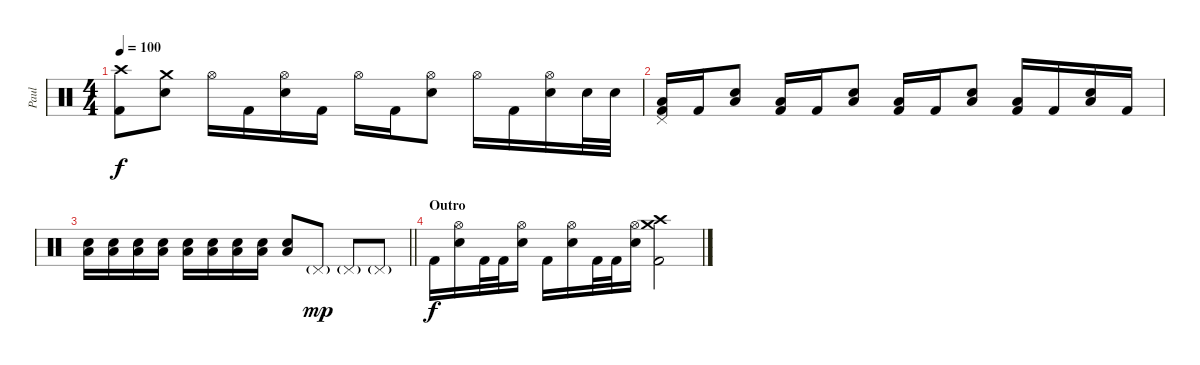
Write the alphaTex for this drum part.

\track ("Paul" "Paul") {instrument percussion}
\staff
\articulation defaults
\ts (4 4)
\tempo 100
\clef neutral
\ks c
("Crash high (hit)" "Kick (hit) 2").8{dy f} ("Crash medium (hit)" "Electric Snare (hit)").8 "Hi-Hat (open)".16 "Kick (hit) 2".16 ("Hi-Hat (open)" "Electric Snare (hit)").16 "Kick (hit) 2".16 "Hi-Hat (open)".16 "Kick (hit) 2".16 ("Hi-Hat (open)" "Electric Snare (hit)").8 "Hi-Hat (open)".16 "Kick (hit) 2".16 ("Hi-Hat (open)" "Electric Snare (hit)").16 "Electric Snare (hit)".32 "Electric Snare (hit)".32 |
("Pedal Hi-Hat (hit)" "Low Floor Tom (hit)" "Kick (hit) 2").16 "Kick (hit) 2".16 ("Electric Snare (hit)" "Low Floor Tom (hit)").8 ("Low Floor Tom (hit)" "Kick (hit) 2").16 "Kick (hit) 2".16 ("Electric Snare (hit)" "Low Floor Tom (hit)").8 ("Low Floor Tom (hit)" "Kick (hit) 2").16 "Kick (hit) 2".16 ("Electric Snare (hit)" "Low Floor Tom (hit)").8 ("Low Floor Tom (hit)" "Kick (hit) 2").16 "Kick (hit) 2".16 ("Electric Snare (hit)" "Low Floor Tom (hit)").16 "Kick (hit) 2".16 |
\barLineRight lightlight
("Electric Snare (hit)" "Low Floor Tom (hit)").16 ("Electric Snare (hit)" "Low Floor Tom (hit)").16 ("Electric Snare (hit)" "Low Floor Tom (hit)").16 ("Electric Snare (hit)" "Low Floor Tom (hit)").16 ("Electric Snare (hit)" "Low Floor Tom (hit)").16 ("Electric Snare (hit)" "Low Floor Tom (hit)").16 ("Electric Snare (hit)" "Low Floor Tom (hit)").16 ("Electric Snare (hit)" "Low Floor Tom (hit)").16 ("Electric Snare (hit)" "Low Floor Tom (hit)").8 "Pedal Hi-Hat (hit)"{g}.8{dy mp} "Pedal Hi-Hat (hit)"{g}.8 "Pedal Hi-Hat (hit)"{g}.8 |
\section ("" "Outro")
"Kick (hit) 2".16{dy f} ("Hi-Hat (open)" "Electric Snare (hit)").16 "Kick (hit) 2".32 "Kick (hit) 2".32 ("Hi-Hat (open)" "Electric Snare (hit)").16 "Kick (hit) 2".16 ("Hi-Hat (open)" "Electric Snare (hit)").16 "Kick (hit) 2".32 "Kick (hit) 2".32 ("Hi-Hat (open)" "Electric Snare (hit)").16 ("Crash medium (hit)" "Crash high (hit)" "Kick (hit) 2").2
